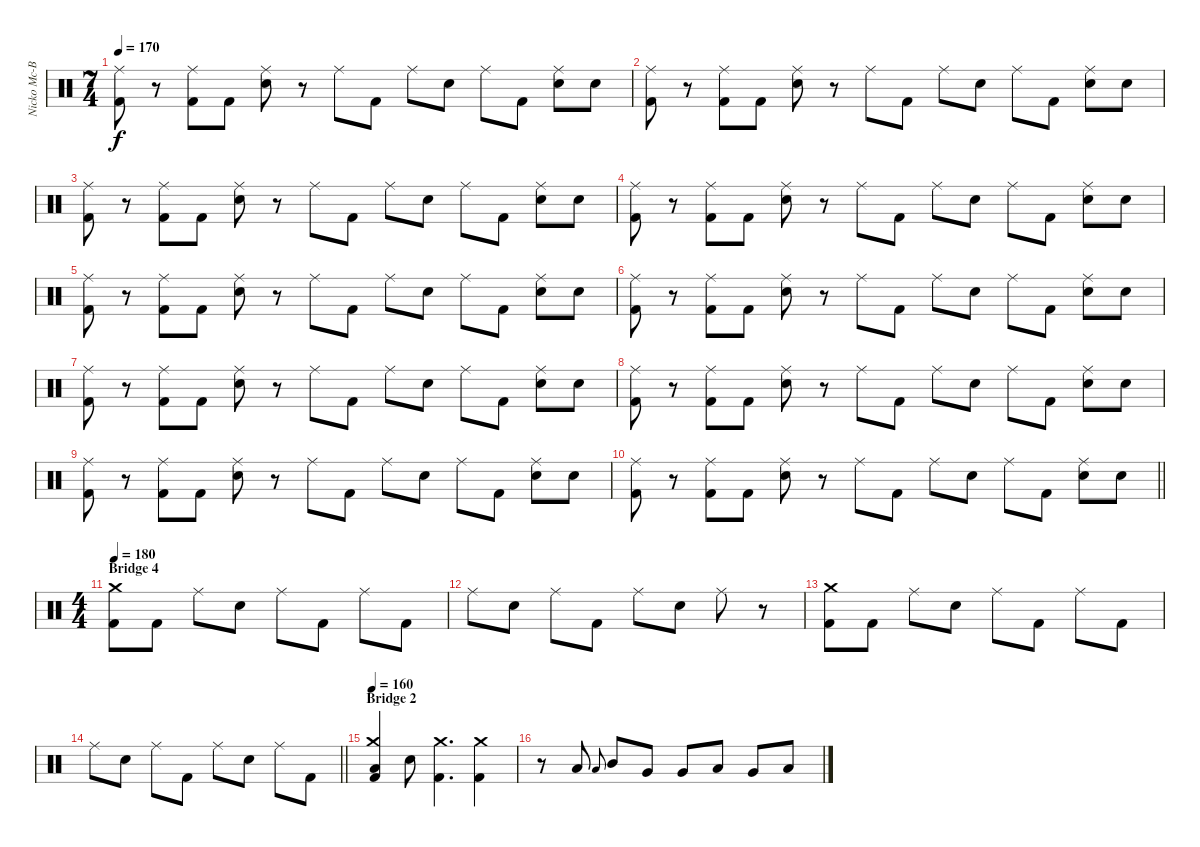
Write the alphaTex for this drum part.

\track ("Nicko Mc-Brain" "Nicko Mc-B") {instrument percussion}
\staff {score}
\articulation defaults
\ts (7 4)
\tempo 170
\clef neutral
\ks c
("Ride (middle)" "Kick (hit) 2").8{dy f} r.8 ("Ride (middle)" "Kick (hit) 2").8 "Kick (hit) 2".8 ("Ride (middle)" "Snare (hit) 2").8 r.8 "Ride (middle)".8 "Kick (hit) 2".8 "Ride (middle)".8 "Snare (hit) 2".8 "Ride (middle)".8 "Kick (hit) 2".8 ("Ride (middle)" "Snare (hit) 2").8 "Snare (hit) 2".8 |
("Ride (middle)" "Kick (hit) 2").8 r.8 ("Ride (middle)" "Kick (hit) 2").8 "Kick (hit) 2".8 ("Ride (middle)" "Snare (hit) 2").8 r.8 "Ride (middle)".8 "Kick (hit) 2".8 "Ride (middle)".8 "Snare (hit) 2".8 "Ride (middle)".8 "Kick (hit) 2".8 ("Ride (middle)" "Snare (hit) 2").8 "Snare (hit) 2".8 |
("Ride (middle)" "Kick (hit) 2").8 r.8 ("Ride (middle)" "Kick (hit) 2").8 "Kick (hit) 2".8 ("Ride (middle)" "Snare (hit) 2").8 r.8 "Ride (middle)".8 "Kick (hit) 2".8 "Ride (middle)".8 "Snare (hit) 2".8 "Ride (middle)".8 "Kick (hit) 2".8 ("Ride (middle)" "Snare (hit) 2").8 "Snare (hit) 2".8 |
("Ride (middle)" "Kick (hit) 2").8 r.8 ("Ride (middle)" "Kick (hit) 2").8 "Kick (hit) 2".8 ("Ride (middle)" "Snare (hit) 2").8 r.8 "Ride (middle)".8 "Kick (hit) 2".8 "Ride (middle)".8 "Snare (hit) 2".8 "Ride (middle)".8 "Kick (hit) 2".8 ("Ride (middle)" "Snare (hit) 2").8 "Snare (hit) 2".8 |
("Ride (middle)" "Kick (hit) 2").8 r.8 ("Ride (middle)" "Kick (hit) 2").8 "Kick (hit) 2".8 ("Ride (middle)" "Snare (hit) 2").8 r.8 "Ride (middle)".8 "Kick (hit) 2".8 "Ride (middle)".8 "Snare (hit) 2".8 "Ride (middle)".8 "Kick (hit) 2".8 ("Ride (middle)" "Snare (hit) 2").8 "Snare (hit) 2".8 |
("Ride (middle)" "Kick (hit) 2").8 r.8 ("Ride (middle)" "Kick (hit) 2").8 "Kick (hit) 2".8 ("Ride (middle)" "Snare (hit) 2").8 r.8 "Ride (middle)".8 "Kick (hit) 2".8 "Ride (middle)".8 "Snare (hit) 2".8 "Ride (middle)".8 "Kick (hit) 2".8 ("Ride (middle)" "Snare (hit) 2").8 "Snare (hit) 2".8 |
("Ride (middle)" "Kick (hit) 2").8 r.8 ("Ride (middle)" "Kick (hit) 2").8 "Kick (hit) 2".8 ("Ride (middle)" "Snare (hit) 2").8 r.8 "Ride (middle)".8 "Kick (hit) 2".8 "Ride (middle)".8 "Snare (hit) 2".8 "Ride (middle)".8 "Kick (hit) 2".8 ("Ride (middle)" "Snare (hit) 2").8 "Snare (hit) 2".8 |
("Ride (middle)" "Kick (hit) 2").8 r.8 ("Ride (middle)" "Kick (hit) 2").8 "Kick (hit) 2".8 ("Ride (middle)" "Snare (hit) 2").8 r.8 "Ride (middle)".8 "Kick (hit) 2".8 "Ride (middle)".8 "Snare (hit) 2".8 "Ride (middle)".8 "Kick (hit) 2".8 ("Ride (middle)" "Snare (hit) 2").8 "Snare (hit) 2".8 |
("Ride (middle)" "Kick (hit) 2").8 r.8 ("Ride (middle)" "Kick (hit) 2").8 "Kick (hit) 2".8 ("Ride (middle)" "Snare (hit) 2").8 r.8 "Ride (middle)".8 "Kick (hit) 2".8 "Ride (middle)".8 "Snare (hit) 2".8 "Ride (middle)".8 "Kick (hit) 2".8 ("Ride (middle)" "Snare (hit) 2").8 "Snare (hit) 2".8 |
\barLineRight lightlight
("Ride (middle)" "Kick (hit) 2").8 r.8 ("Ride (middle)" "Kick (hit) 2").8 "Kick (hit) 2".8 ("Ride (middle)" "Snare (hit) 2").8 r.8 "Ride (middle)".8 "Kick (hit) 2".8 "Ride (middle)".8 "Snare (hit) 2".8 "Ride (middle)".8 "Kick (hit) 2".8 ("Ride (middle)" "Snare (hit) 2").8 "Snare (hit) 2".8 |
\ts (4 4)
\section ("" "Bridge 4")
\tempo 180
("Crash medium (hit)" "Kick (hit) 2").8 "Kick (hit) 2".8 "Ride (middle)".8 "Snare (hit) 2".8 "Ride (middle)".8 "Kick (hit) 2".8 "Ride (middle)".8 "Kick (hit) 2".8 |
"Ride (middle)".8 "Snare (hit) 2".8 "Ride (middle)".8 "Kick (hit) 2".8 "Ride (middle)".8 "Snare (hit) 2".8 "Ride (middle)".8 r.8 |
("Crash medium (hit)" "Kick (hit) 2").8 "Kick (hit) 2".8 "Ride (middle)".8 "Snare (hit) 2".8 "Ride (middle)".8 "Kick (hit) 2".8 "Ride (middle)".8 "Kick (hit) 2".8 |
\barLineRight lightlight "Ride (middle)".8 "Snare (hit) 2".8 "Ride (middle)".8 "Kick (hit) 2".8 "Ride (middle)".8 "Snare (hit) 2".8 "Ride (middle)".8 "Kick (hit) 2".8
|
\section ("" "Bridge 2")
\tempo 160
("Crash medium (hit)" "Low Floor Tom (hit)" "Kick (hit) 2").4 "Snare (hit) 2".8 ("Crash medium (hit)" "Kick (hit) 2").4{d} ("Crash medium (hit)" "Kick (hit) 2").4 |
r.8 "Low Floor Tom (hit)".8 "Low Tom (hit)".8{gr onbeat} "Mid Tom (hit)".8 "Very Low Tom (hit)".8 "Very Low Tom (hit)".8 "Low Tom (hit)".8 "Very Low Tom (hit)".8 "Low Floor Tom (hit)".8
